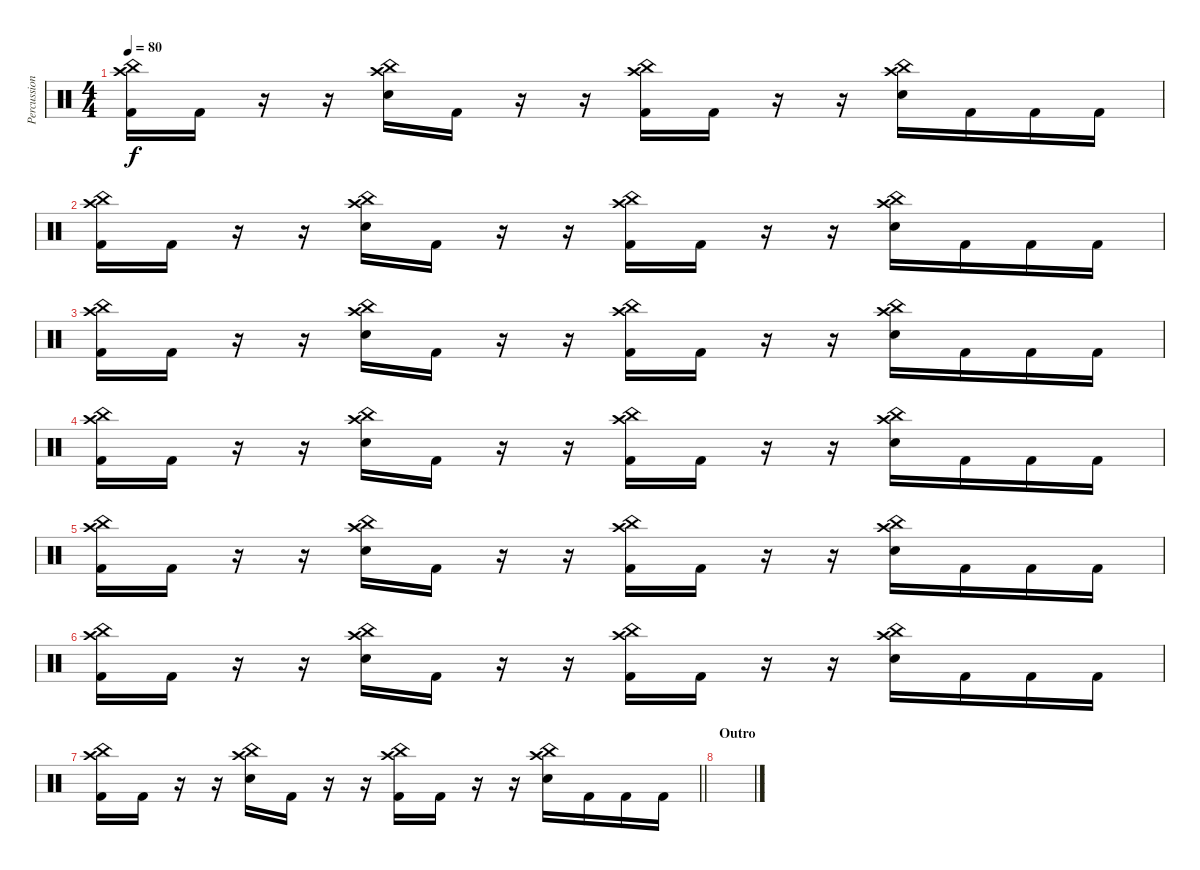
\track ("Percussion" "Percussion") {instrument percussion}
\staff {score}
\articulation defaults
\ts (4 4)
\tempo 80
\clef neutral
\ks c
("Crash high (hit)" "Kick (hit) 2" "China (hit)").16{dy f} "Kick (hit) 2".16 r.16 r.16 ("Snare (hit) 2" "Crash high (hit)" "China (hit)").16 "Kick (hit) 2".16 r.16 r.16 ("Kick (hit) 2" "Crash high (hit)" "China (hit)").16 "Kick (hit) 2".16 r.16 r.16 ("Crash high (hit)" "Snare (hit) 2" "China (hit)").16 "Kick (hit) 2".16 "Kick (hit) 2".16 "Kick (hit) 2".16 |
("Crash high (hit)" "Kick (hit) 2" "China (hit)").16 "Kick (hit) 2".16 r.16 r.16 ("Snare (hit) 2" "Crash high (hit)" "China (hit)").16 "Kick (hit) 2".16 r.16 r.16 ("Kick (hit) 2" "Crash high (hit)" "China (hit)").16 "Kick (hit) 2".16 r.16 r.16 ("Crash high (hit)" "Snare (hit) 2" "China (hit)").16 "Kick (hit) 2".16 "Kick (hit) 2".16 "Kick (hit) 2".16 |
("Crash high (hit)" "Kick (hit) 2" "China (hit)").16 "Kick (hit) 2".16 r.16 r.16 ("Snare (hit) 2" "Crash high (hit)" "China (hit)").16 "Kick (hit) 2".16 r.16 r.16 ("Kick (hit) 2" "Crash high (hit)" "China (hit)").16 "Kick (hit) 2".16 r.16 r.16 ("Crash high (hit)" "Snare (hit) 2" "China (hit)").16 "Kick (hit) 2".16 "Kick (hit) 2".16 "Kick (hit) 2".16 |
("Crash high (hit)" "Kick (hit) 2" "China (hit)").16 "Kick (hit) 2".16 r.16 r.16 ("Snare (hit) 2" "Crash high (hit)" "China (hit)").16 "Kick (hit) 2".16 r.16 r.16 ("Kick (hit) 2" "Crash high (hit)" "China (hit)").16 "Kick (hit) 2".16 r.16 r.16 ("Crash high (hit)" "Snare (hit) 2" "China (hit)").16 "Kick (hit) 2".16 "Kick (hit) 2".16 "Kick (hit) 2".16 |
("Crash high (hit)" "Kick (hit) 2" "China (hit)").16 "Kick (hit) 2".16 r.16 r.16 ("Snare (hit) 2" "Crash high (hit)" "China (hit)").16 "Kick (hit) 2".16 r.16 r.16 ("Kick (hit) 2" "Crash high (hit)" "China (hit)").16 "Kick (hit) 2".16 r.16 r.16 ("Crash high (hit)" "Snare (hit) 2" "China (hit)").16 "Kick (hit) 2".16 "Kick (hit) 2".16 "Kick (hit) 2".16 |
("Crash high (hit)" "Kick (hit) 2" "China (hit)").16 "Kick (hit) 2".16 r.16 r.16 ("Snare (hit) 2" "Crash high (hit)" "China (hit)").16 "Kick (hit) 2".16 r.16 r.16 ("Kick (hit) 2" "Crash high (hit)" "China (hit)").16 "Kick (hit) 2".16 r.16 r.16 ("Crash high (hit)" "Snare (hit) 2" "China (hit)").16 "Kick (hit) 2".16 "Kick (hit) 2".16 "Kick (hit) 2".16 |
\barLineRight lightlight
("Crash high (hit)" "Kick (hit) 2" "China (hit)").16 "Kick (hit) 2".16 r.16 r.16 ("Snare (hit) 2" "Crash high (hit)" "China (hit)").16 "Kick (hit) 2".16 r.16 r.16 ("Kick (hit) 2" "Crash high (hit)" "China (hit)").16 "Kick (hit) 2".16 r.16 r.16 ("Crash high (hit)" "Snare (hit) 2" "China (hit)").16 "Kick (hit) 2".16 "Kick (hit) 2".16 "Kick (hit) 2".16 |
\section ("" "Outro")
